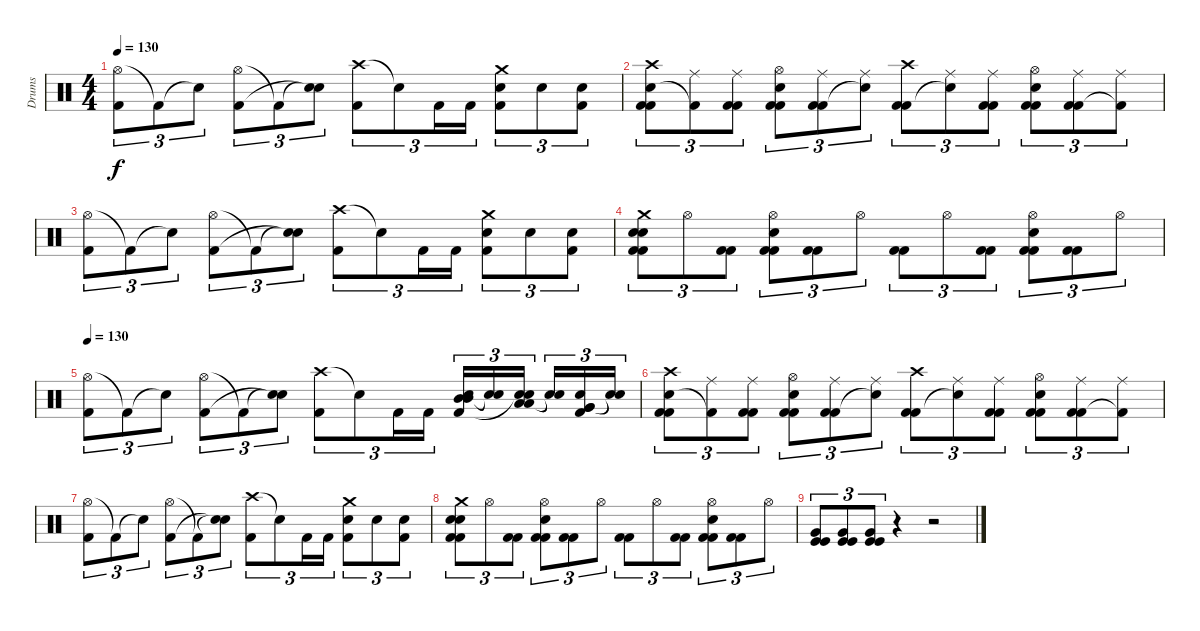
\track ("Drums" "Drums") {instrument percussion}
\staff {score}
\articulation defaults
\ts (4 4)
\tempo 130
\clef neutral
\ks c
("Hi-Hat (open)" "Kick (hit) 2").8{tu (3 2) dy f} "Kick (hit) 2"{t}.8{tu (3 2)} "Snare (hit)"{t}.8{tu (3 2)} ("Hi-Hat (open)" "Kick (hit) 2").8{tu (3 2)} "Kick (hit) 2"{t}.8{tu (3 2)} ("Snare (hit)"{t} "Snare (hit)"{t}).8{tu (3 2)} ("Crash high (hit)" "Kick (hit) 2").8{tu (3 2)} "Snare (hit)"{t}.8{tu (3 2)} "Kick (hit) 2".16{tu (3 2)} "Kick (hit) 2".16{tu (3 2)} ("Crash medium (hit)" "Snare (hit) 2" "Kick (hit) 2").8{tu (3 2)} "Snare (hit) 2".8{tu (3 2)} ("Snare (hit) 2" "Kick (hit) 2").8{tu (3 2)} |
("Crash high (hit)" "Snare (hit) 2" "Kick (hit) 2" "Kick (hit) 2").8{tu (3 2)} ("Ride (middle)" "Kick (hit) 2"{t}).8{tu (3 2)} ("Ride (middle)" "Kick (hit) 2" "Kick (hit) 2").8{tu (3 2)} ("Hi-Hat (open)" "Snare (hit) 2" "Kick (hit) 2" "Kick (hit) 2").8{tu (3 2)} ("Ride (middle)" "Kick (hit) 2" "Kick (hit) 2").8{tu (3 2)} ("Ride (middle)" "Snare (hit)"{t}).8{tu (3 2)} ("Crash high (hit)" "Kick (hit) 2" "Kick (hit) 2").8{tu (3 2)} ("Ride (middle)" "Snare (hit)"{t}).8{tu (3 2)} ("Ride (middle)" "Kick (hit) 2" "Kick (hit) 2").8{tu (3 2)} ("Hi-Hat (open)" "Snare (hit) 2" "Kick (hit) 2" "Kick (hit) 2").8{tu (3 2)} ("Ride (middle)" "Kick (hit) 2" "Kick (hit) 2").8{tu (3 2)} ("Ride (middle)" "Kick (hit) 2"{t}).8{tu (3 2)} |
("Hi-Hat (open)" "Kick (hit) 2").8{tu (3 2)} "Kick (hit) 2"{t}.8{tu (3 2)} "Snare (hit)"{t}.8{tu (3 2)} ("Hi-Hat (open)" "Kick (hit) 2").8{tu (3 2)} "Kick (hit) 2"{t}.8{tu (3 2)} ("Snare (hit)"{t} "Snare (hit)"{t}).8{tu (3 2)} ("Crash high (hit)" "Kick (hit) 2").8{tu (3 2)} "Snare (hit)"{t}.8{tu (3 2)} "Kick (hit) 2".16{tu (3 2)} "Kick (hit) 2".16{tu (3 2)} ("Crash medium (hit)" "Snare (hit) 2" "Kick (hit) 2").8{tu (3 2)} "Snare (hit) 2".8{tu (3 2)} ("Snare (hit) 2" "Kick (hit) 2").8{tu (3 2)} |
("Crash medium (hit)" "Snare (hit) 2" "Snare (hit) 2" "Kick (hit) 2" "Kick (hit) 2").8{tu (3 2)} "Hi-Hat (open)".8{tu (3 2)} ("Kick (hit) 2" "Kick (hit) 2").8{tu (3 2)} ("Hi-Hat (open)" "Snare (hit) 2" "Kick (hit) 2" "Kick (hit) 2").8{tu (3 2)} ("Kick (hit) 2" "Kick (hit) 2").8{tu (3 2)} "Hi-Hat (open)".8{tu (3 2)} ("Kick (hit) 2" "Kick (hit) 2").8{tu (3 2)} "Hi-Hat (open)".8{tu (3 2)} ("Kick (hit) 2" "Kick (hit) 2").8{tu (3 2)} ("Hi-Hat (open)" "Snare (hit) 2" "Kick (hit) 2" "Kick (hit) 2").8{tu (3 2)} ("Kick (hit) 2" "Kick (hit) 2").8{tu (3 2)} "Hi-Hat (open)".8{tu (3 2)} |
\tempo 130
("Hi-Hat (open)" "Kick (hit) 2").8{tu (3 2)} "Kick (hit) 2"{t}.8{tu (3 2)} "Snare (hit)"{t}.8{tu (3 2)} ("Hi-Hat (open)" "Kick (hit) 2").8{tu (3 2)} "Kick (hit) 2"{t}.8{tu (3 2)} ("Snare (hit)"{t} "Snare (hit)"{t}).8{tu (3 2)} ("Crash high (hit)" "Kick (hit) 2").8{tu (3 2)} "Snare (hit)"{t}.8{tu (3 2)} "Kick (hit) 2".16{tu (3 2)} "Kick (hit) 2".16{tu (3 2)} ("Mid Tom (hit)" "Mid Tom (hit)" "Snare (hit) 2" "Kick (hit) 2").16{tu (3 2)} ("Snare (hit)"{t} "Snare (hit)"{t}).16{tu (3 2)} ("Low Tom (hit)" "Low Tom (hit)" "Snare (hit) 2" "Snare (hit)"{t}).16{tu (3 2)} ("Snare (hit)"{t} "Snare (hit)"{t}).16{tu (3 2)} ("Very Low Tom (hit)" "Very Low Tom (hit)" "Snare (hit) 2" "Kick (hit) 2").16{tu (3 2)} ("Snare (hit)"{t} "Snare (hit)"{t}).16{tu (3 2)} |
("Crash high (hit)" "Snare (hit) 2" "Kick (hit) 2" "Kick (hit) 2").8{tu (3 2)} ("Ride (middle)" "Kick (hit) 2"{t}).8{tu (3 2)} ("Ride (middle)" "Kick (hit) 2" "Kick (hit) 2").8{tu (3 2)} ("Hi-Hat (open)" "Snare (hit) 2" "Kick (hit) 2" "Kick (hit) 2").8{tu (3 2)} ("Ride (middle)" "Kick (hit) 2" "Kick (hit) 2").8{tu (3 2)} ("Ride (middle)" "Snare (hit)"{t}).8{tu (3 2)} ("Crash high (hit)" "Kick (hit) 2" "Kick (hit) 2").8{tu (3 2)} ("Ride (middle)" "Snare (hit)"{t}).8{tu (3 2)} ("Ride (middle)" "Kick (hit) 2" "Kick (hit) 2").8{tu (3 2)} ("Hi-Hat (open)" "Snare (hit) 2" "Kick (hit) 2" "Kick (hit) 2").8{tu (3 2)} ("Ride (middle)" "Kick (hit) 2" "Kick (hit) 2").8{tu (3 2)} ("Ride (middle)" "Kick (hit) 2"{t}).8{tu (3 2)} |
("Hi-Hat (open)" "Kick (hit) 2").8{tu (3 2)} "Kick (hit) 2"{t}.8{tu (3 2)} "Snare (hit)"{t}.8{tu (3 2)} ("Hi-Hat (open)" "Kick (hit) 2").8{tu (3 2)} "Kick (hit) 2"{t}.8{tu (3 2)} ("Snare (hit)"{t} "Snare (hit)"{t}).8{tu (3 2)} ("Crash high (hit)" "Kick (hit) 2").8{tu (3 2)} "Snare (hit)"{t}.8{tu (3 2)} "Kick (hit) 2".16{tu (3 2)} "Kick (hit) 2".16{tu (3 2)} ("Crash medium (hit)" "Snare (hit) 2" "Kick (hit) 2").8{tu (3 2)} "Snare (hit) 2".8{tu (3 2)} ("Snare (hit) 2" "Kick (hit) 2").8{tu (3 2)} |
("Crash medium (hit)" "Snare (hit) 2" "Snare (hit) 2" "Kick (hit) 2" "Kick (hit) 2").8{tu (3 2)} "Hi-Hat (open)".8{tu (3 2)} ("Kick (hit) 2" "Kick (hit) 2").8{tu (3 2)} ("Hi-Hat (open)" "Snare (hit) 2" "Kick (hit) 2" "Kick (hit) 2").8{tu (3 2)} ("Kick (hit) 2" "Kick (hit) 2").8{tu (3 2)} "Hi-Hat (open)".8{tu (3 2)} ("Kick (hit) 2" "Kick (hit) 2").8{tu (3 2)} "Hi-Hat (open)".8{tu (3 2)} ("Kick (hit) 2" "Kick (hit) 2").8{tu (3 2)} ("Hi-Hat (open)" "Snare (hit) 2" "Kick (hit) 2" "Kick (hit) 2").8{tu (3 2)} ("Kick (hit) 2" "Kick (hit) 2").8{tu (3 2)} "Hi-Hat (open)".8{tu (3 2)} |
("Very Low Tom (hit)" "Kick (hit)" "Kick (hit)").8{tu (3 2)} ("Very Low Tom (hit)" "Kick (hit)" "Kick (hit)").8{tu (3 2)} ("Very Low Tom (hit)" "Kick (hit)" "Kick (hit)").8{tu (3 2)} r.4 r.2
